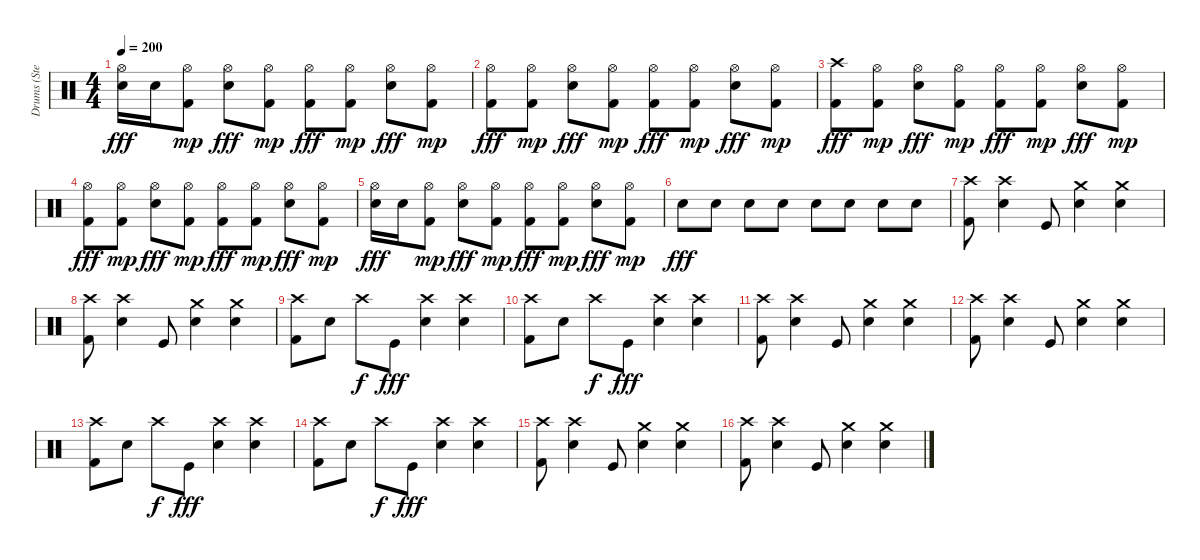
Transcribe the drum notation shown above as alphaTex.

\track ("Drums (Stevo32)" "Drums (Ste") {instrument percussion}
\staff {score}
\articulation defaults
\ts (4 4)
\tempo 200
\clef neutral
\ks c
("Electric Snare (hit)" "Hi-Hat (open)").16{dy fff} "Electric Snare (hit)".16 ("Kick (hit) 2" "Hi-Hat (open)").8{dy mp} ("Electric Snare (hit)" "Hi-Hat (open)").8{dy fff} ("Kick (hit) 2" "Hi-Hat (open)").8{dy mp} ("Kick (hit) 2" "Hi-Hat (open)").8{dy fff} ("Kick (hit) 2" "Hi-Hat (open)").8{dy mp} ("Electric Snare (hit)" "Hi-Hat (open)").8{dy fff} ("Kick (hit) 2" "Hi-Hat (open)").8{dy mp} |
("Kick (hit) 2" "Hi-Hat (open)").8{dy fff} ("Kick (hit) 2" "Hi-Hat (open)").8{dy mp} ("Electric Snare (hit)" "Hi-Hat (open)").8{dy fff} ("Kick (hit) 2" "Hi-Hat (open)").8{dy mp} ("Kick (hit) 2" "Hi-Hat (open)").8{dy fff} ("Kick (hit) 2" "Hi-Hat (open)").8{dy mp} ("Electric Snare (hit)" "Hi-Hat (open)").8{dy fff} ("Kick (hit) 2" "Hi-Hat (open)").8{dy mp} |
("Kick (hit) 2" "Crash high (hit)").8{dy fff} ("Kick (hit) 2" "Hi-Hat (open)").8{dy mp} ("Electric Snare (hit)" "Hi-Hat (open)").8{dy fff} ("Kick (hit) 2" "Hi-Hat (open)").8{dy mp} ("Kick (hit) 2" "Hi-Hat (open)").8{dy fff} ("Kick (hit) 2" "Hi-Hat (open)").8{dy mp} ("Electric Snare (hit)" "Hi-Hat (open)").8{dy fff} ("Kick (hit) 2" "Hi-Hat (open)").8{dy mp} |
("Kick (hit) 2" "Hi-Hat (open)").8{dy fff} ("Kick (hit) 2" "Hi-Hat (open)").8{dy mp} ("Electric Snare (hit)" "Hi-Hat (open)").8{dy fff} ("Kick (hit) 2" "Hi-Hat (open)").8{dy mp} ("Kick (hit) 2" "Hi-Hat (open)").8{dy fff} ("Kick (hit) 2" "Hi-Hat (open)").8{dy mp} ("Electric Snare (hit)" "Hi-Hat (open)").8{dy fff} ("Kick (hit) 2" "Hi-Hat (open)").8{dy mp} |
("Electric Snare (hit)" "Hi-Hat (open)").16{dy fff} "Electric Snare (hit)".16 ("Kick (hit) 2" "Hi-Hat (open)").8{dy mp} ("Electric Snare (hit)" "Hi-Hat (open)").8{dy fff} ("Kick (hit) 2" "Hi-Hat (open)").8{dy mp} ("Kick (hit) 2" "Hi-Hat (open)").8{dy fff} ("Kick (hit) 2" "Hi-Hat (open)").8{dy mp} ("Electric Snare (hit)" "Hi-Hat (open)").8{dy fff} ("Kick (hit) 2" "Hi-Hat (open)").8{dy mp} |
"Electric Snare (hit)".8{dy fff} "Electric Snare (hit)".8 "Electric Snare (hit)".8 "Electric Snare (hit)".8 "Electric Snare (hit)".8 "Electric Snare (hit)".8 "Electric Snare (hit)".8 "Electric Snare (hit)".8 |
("Kick (hit) 2" "Crash high (hit)").8 ("Electric Snare (hit)" "Crash high (hit)").4 "Kick (hit)".8 ("Electric Snare (hit)" "Crash medium (hit)").4 ("Electric Snare (hit)" "Crash medium (hit)").4 |
("Kick (hit) 2" "Crash high (hit)").8 ("Electric Snare (hit)" "Crash high (hit)").4 "Kick (hit)".8 ("Electric Snare (hit)" "Crash medium (hit)").4 ("Electric Snare (hit)" "Crash medium (hit)").4 |
("Kick (hit) 2" "Crash high (hit)").8 "Electric Snare (hit)".8 "Crash high (hit)".8{dy f} "Kick (hit)".8{dy fff} ("Electric Snare (hit)" "Crash high (hit)").4 ("Electric Snare (hit)" "Crash high (hit)").4 |
("Kick (hit) 2" "Crash high (hit)").8 "Electric Snare (hit)".8 "Crash high (hit)".8{dy f} "Kick (hit)".8{dy fff} ("Electric Snare (hit)" "Crash high (hit)").4 ("Electric Snare (hit)" "Crash high (hit)").4 |
("Kick (hit) 2" "Crash high (hit)").8 ("Electric Snare (hit)" "Crash high (hit)").4 "Kick (hit)".8 ("Electric Snare (hit)" "Crash medium (hit)").4 ("Electric Snare (hit)" "Crash medium (hit)").4 |
("Kick (hit) 2" "Crash high (hit)").8 ("Electric Snare (hit)" "Crash high (hit)").4 "Kick (hit)".8 ("Electric Snare (hit)" "Crash medium (hit)").4 ("Electric Snare (hit)" "Crash medium (hit)").4 |
("Kick (hit) 2" "Crash high (hit)").8 "Electric Snare (hit)".8 "Crash high (hit)".8{dy f} "Kick (hit)".8{dy fff} ("Electric Snare (hit)" "Crash high (hit)").4 ("Electric Snare (hit)" "Crash high (hit)").4 |
("Kick (hit) 2" "Crash high (hit)").8 "Electric Snare (hit)".8 "Crash high (hit)".8{dy f} "Kick (hit)".8{dy fff} ("Electric Snare (hit)" "Crash high (hit)").4 ("Electric Snare (hit)" "Crash high (hit)").4 |
("Kick (hit) 2" "Crash high (hit)").8 ("Electric Snare (hit)" "Crash high (hit)").4 "Kick (hit)".8 ("Electric Snare (hit)" "Crash medium (hit)").4 ("Electric Snare (hit)" "Crash medium (hit)").4 |
("Kick (hit) 2" "Crash high (hit)").8 ("Electric Snare (hit)" "Crash high (hit)").4 "Kick (hit)".8 ("Electric Snare (hit)" "Crash medium (hit)").4 ("Electric Snare (hit)" "Crash medium (hit)").4
